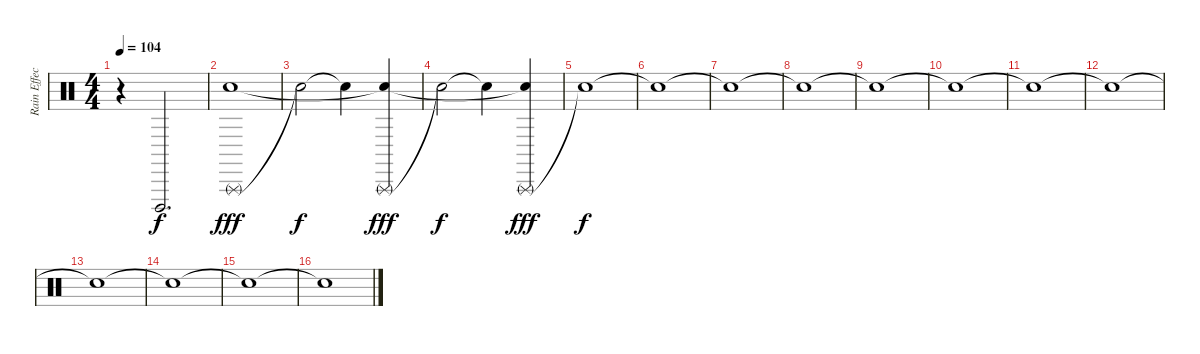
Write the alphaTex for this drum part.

\track ("Rain Effect" "Rain Effec") {instrument percussion}
\staff {score}
\articulation defaults
\ts (4 4)
\tempo 104
\clef neutral
\ks c
r.4{dy f volume 0} "Cuica (open)".2{d volume 8} |
("Triangle (rnute)" "Snare (hit)").1{dy fff} |
"Snare (hit)"{t}.2{dy f volume 13} "Snare (hit)"{t}.4 ("Triangle (rnute)" "Snare (hit)"{t}).4{dy fff} |
"Snare (hit)"{t}.2{dy f} "Snare (hit)"{t}.4 ("Triangle (rnute)" "Snare (hit)"{t}).4{dy fff} |
"Snare (hit)"{t}.1{dy f} |
"Snare (hit)"{t}.1{volume 13} |
"Snare (hit)"{t}.1 |
"Snare (hit)"{t}.1 |
"Snare (hit)"{t}.1 |
"Snare (hit)"{t}.1 |
"Snare (hit)"{t}.1 |
"Snare (hit)"{t}.1 |
"Snare (hit)"{t}.1 |
"Snare (hit)"{t}.1 |
"Snare (hit)"{t}.1 |
"Snare (hit)"{t}.1
